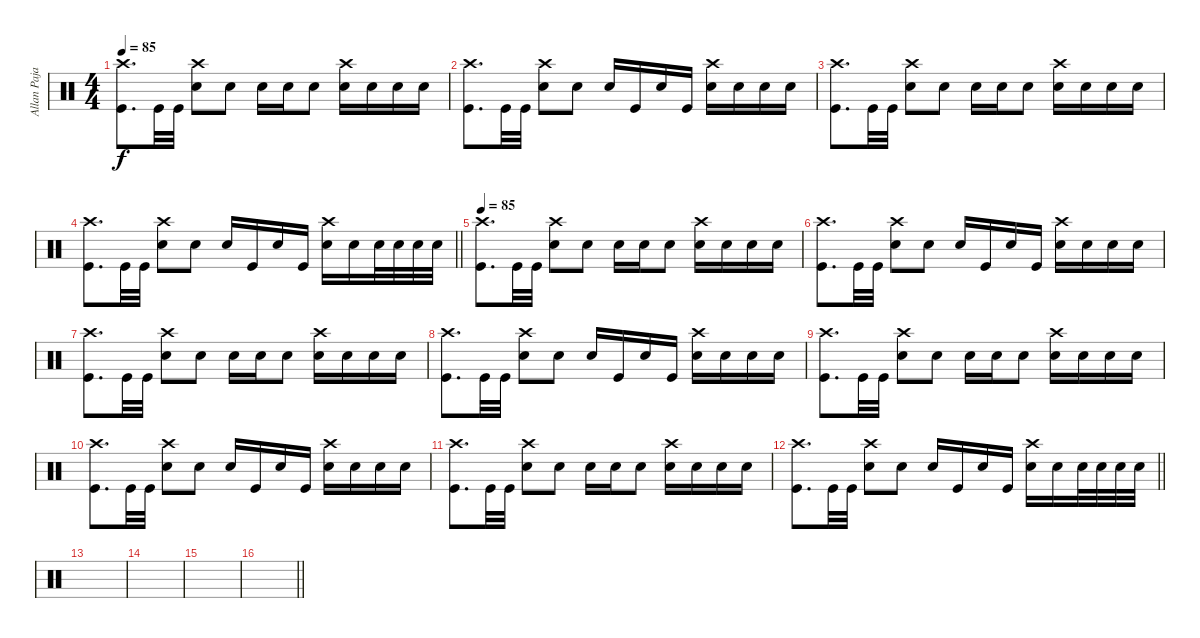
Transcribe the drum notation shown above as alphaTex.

\track ("Allan Pajarin (Drums)" "Allan Paja") {instrument percussion}
\staff {score}
\articulation defaults
\ts (4 4)
\tempo 85
\clef neutral
\ks c
("Crash high (hit)" "Kick (hit)").8{d dy f} "Kick (hit)".32 "Kick (hit)".32 ("Crash high (hit)" "Electric Snare (hit)").8 "Electric Snare (hit)".8 "Electric Snare (hit)".16 "Electric Snare (hit)".16 "Electric Snare (hit)".8 ("Electric Snare (hit)" "Crash high (hit)").16 "Electric Snare (hit)".16 "Electric Snare (hit)".16 "Electric Snare (hit)".16 |
("Crash high (hit)" "Kick (hit)").8{d} "Kick (hit)".32 "Kick (hit)".32 ("Crash high (hit)" "Electric Snare (hit)").8 "Electric Snare (hit)".8 "Electric Snare (hit)".16 "Kick (hit)".16 "Electric Snare (hit)".16 "Kick (hit)".16 ("Electric Snare (hit)" "Crash high (hit)").16 "Electric Snare (hit)".16 "Electric Snare (hit)".16 "Electric Snare (hit)".16 |
("Crash high (hit)" "Kick (hit)").8{d} "Kick (hit)".32 "Kick (hit)".32 ("Crash high (hit)" "Electric Snare (hit)").8 "Electric Snare (hit)".8 "Electric Snare (hit)".16 "Electric Snare (hit)".16 "Electric Snare (hit)".8 ("Electric Snare (hit)" "Crash high (hit)").16 "Electric Snare (hit)".16 "Electric Snare (hit)".16 "Electric Snare (hit)".16 |
\barLineRight lightlight
("Crash high (hit)" "Kick (hit)").8{d} "Kick (hit)".32 "Kick (hit)".32 ("Crash high (hit)" "Electric Snare (hit)").8 "Electric Snare (hit)".8 "Electric Snare (hit)".16 "Kick (hit)".16 "Electric Snare (hit)".16 "Kick (hit)".16 ("Electric Snare (hit)" "Crash high (hit)").16 "Electric Snare (hit)".16 "Electric Snare (hit)".32 "Electric Snare (hit)".32 "Electric Snare (hit)".32 "Electric Snare (hit)".32 |
\tempo 85
("Crash high (hit)" "Kick (hit)").8{d volume 13} "Kick (hit)".32 "Kick (hit)".32 ("Crash high (hit)" "Electric Snare (hit)").8 "Electric Snare (hit)".8 "Electric Snare (hit)".16 "Electric Snare (hit)".16 "Electric Snare (hit)".8 ("Electric Snare (hit)" "Crash high (hit)").16 "Electric Snare (hit)".16 "Electric Snare (hit)".16 "Electric Snare (hit)".16 |
("Crash high (hit)" "Kick (hit)").8{d} "Kick (hit)".32 "Kick (hit)".32 ("Crash high (hit)" "Electric Snare (hit)").8 "Electric Snare (hit)".8 "Electric Snare (hit)".16 "Kick (hit)".16 "Electric Snare (hit)".16 "Kick (hit)".16 ("Electric Snare (hit)" "Crash high (hit)").16 "Electric Snare (hit)".16 "Electric Snare (hit)".16 "Electric Snare (hit)".16 |
("Crash high (hit)" "Kick (hit)").8{d} "Kick (hit)".32 "Kick (hit)".32 ("Crash high (hit)" "Electric Snare (hit)").8 "Electric Snare (hit)".8 "Electric Snare (hit)".16 "Electric Snare (hit)".16 "Electric Snare (hit)".8 ("Electric Snare (hit)" "Crash high (hit)").16 "Electric Snare (hit)".16 "Electric Snare (hit)".16 "Electric Snare (hit)".16 |
("Crash high (hit)" "Kick (hit)").8{d} "Kick (hit)".32 "Kick (hit)".32 ("Crash high (hit)" "Electric Snare (hit)").8 "Electric Snare (hit)".8 "Electric Snare (hit)".16 "Kick (hit)".16 "Electric Snare (hit)".16 "Kick (hit)".16 ("Electric Snare (hit)" "Crash high (hit)").16 "Electric Snare (hit)".16 "Electric Snare (hit)".16 "Electric Snare (hit)".16 |
("Crash high (hit)" "Kick (hit)").8{d} "Kick (hit)".32 "Kick (hit)".32 ("Crash high (hit)" "Electric Snare (hit)").8 "Electric Snare (hit)".8 "Electric Snare (hit)".16 "Electric Snare (hit)".16 "Electric Snare (hit)".8 ("Electric Snare (hit)" "Crash high (hit)").16 "Electric Snare (hit)".16 "Electric Snare (hit)".16 "Electric Snare (hit)".16 |
("Crash high (hit)" "Kick (hit)").8{d} "Kick (hit)".32 "Kick (hit)".32 ("Crash high (hit)" "Electric Snare (hit)").8 "Electric Snare (hit)".8 "Electric Snare (hit)".16 "Kick (hit)".16 "Electric Snare (hit)".16 "Kick (hit)".16 ("Electric Snare (hit)" "Crash high (hit)").16 "Electric Snare (hit)".16 "Electric Snare (hit)".16 "Electric Snare (hit)".16 |
("Crash high (hit)" "Kick (hit)").8{d} "Kick (hit)".32 "Kick (hit)".32 ("Crash high (hit)" "Electric Snare (hit)").8 "Electric Snare (hit)".8 "Electric Snare (hit)".16 "Electric Snare (hit)".16 "Electric Snare (hit)".8 ("Electric Snare (hit)" "Crash high (hit)").16 "Electric Snare (hit)".16 "Electric Snare (hit)".16 "Electric Snare (hit)".16 |
\barLineRight lightlight
("Crash high (hit)" "Kick (hit)").8{d} "Kick (hit)".32 "Kick (hit)".32 ("Crash high (hit)" "Electric Snare (hit)").8 "Electric Snare (hit)".8 "Electric Snare (hit)".16 "Kick (hit)".16 "Electric Snare (hit)".16 "Kick (hit)".16 ("Electric Snare (hit)" "Crash high (hit)").16 "Electric Snare (hit)".16 "Electric Snare (hit)".32 "Electric Snare (hit)".32 "Electric Snare (hit)".32 "Electric Snare (hit)".32 |
|
|
|
\barLineRight lightlight
